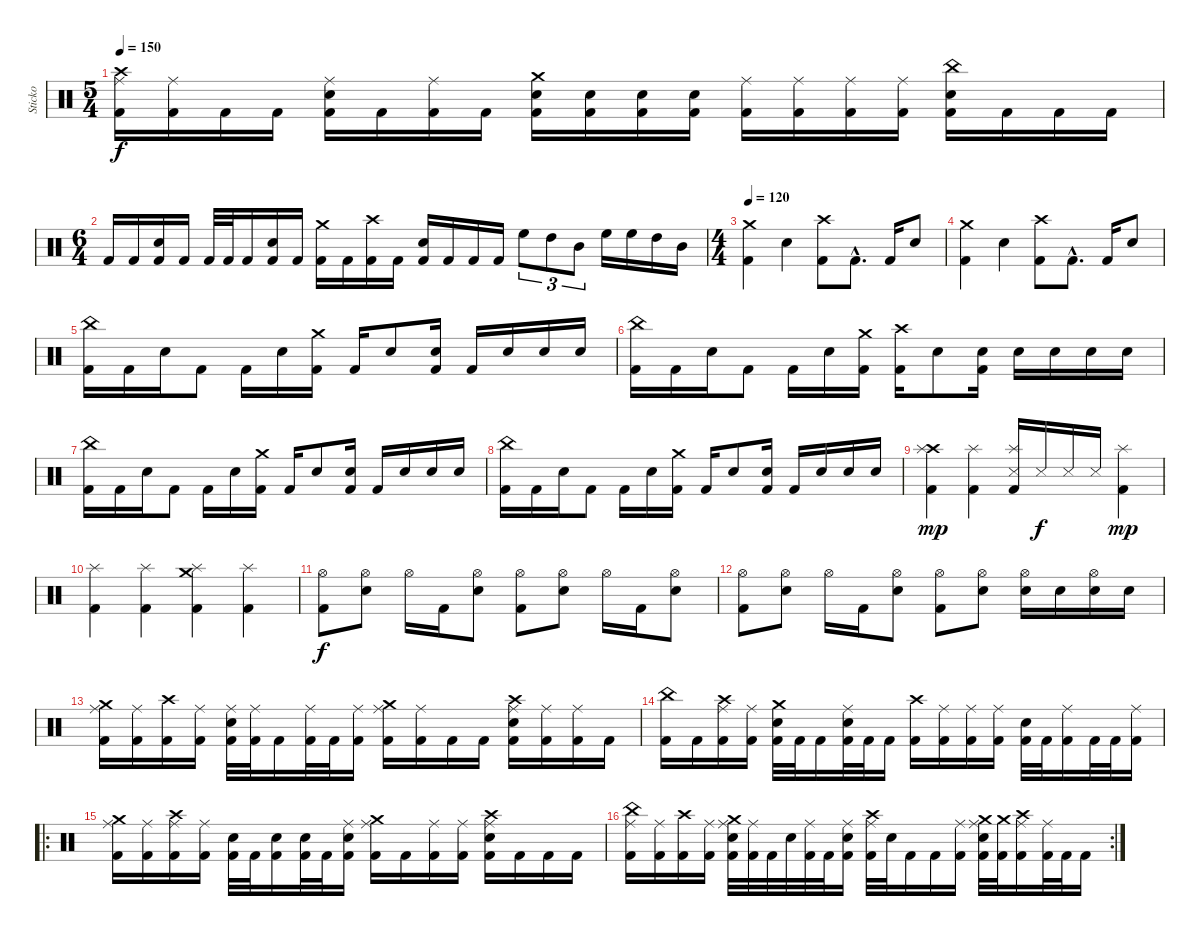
\track ("Sticko" "Sticko") {instrument percussion}
\staff {score}
\articulation defaults
\ts (5 4)
\tempo 150
\clef neutral
\ks c
("Crash high (hit)" "Ride (middle)" "Kick (hit) 2").16{dy f} ("Ride (middle)" "Kick (hit) 2").16 "Kick (hit) 2".16 "Kick (hit) 2".16 ("Ride (middle)" "Snare (hit) 2" "Kick (hit) 2").16 "Kick (hit) 2".16 ("Ride (middle)" "Kick (hit) 2").16 "Kick (hit) 2".16 ("Crash medium (hit)" "Snare (hit) 2" "Kick (hit) 2").16 ("Snare (hit) 2" "Kick (hit) 2").16 ("Snare (hit) 2" "Kick (hit) 2").16 ("Snare (hit) 2" "Kick (hit) 2").16 ("Ride (middle)" "Kick (hit) 2").16 ("Ride (middle)" "Kick (hit) 2").16 ("Ride (middle)" "Kick (hit) 2").16 ("Ride (middle)" "Kick (hit) 2").16 ("China (hit)" "Snare (hit) 2" "Kick (hit) 2").16 "Kick (hit) 2".16 "Kick (hit) 2".16 "Kick (hit) 2".16 |
\ts (6 4)
"Kick (hit) 2".16 "Kick (hit) 2".16 ("Snare (hit) 2" "Kick (hit) 2").16 "Kick (hit) 2".16 "Kick (hit) 2".32 "Kick (hit) 2".32 "Kick (hit) 2".16 ("Snare (hit) 2" "Kick (hit) 2").16 "Kick (hit) 2".16 ("Crash medium (hit)" "Kick (hit) 2").16 "Kick (hit) 2".16 ("Crash high (hit)" "Kick (hit) 2").16 "Kick (hit) 2".16 ("Snare (hit) 2" "Kick (hit) 2").16 "Kick (hit) 2".16 "Kick (hit) 2".16 "Kick (hit) 2".16 "High Floor Tom (hit)".8{tu (3 2)} "High Tom (hit)".8{tu (3 2)} "Mid Tom (hit)".8{tu (3 2)} "High Floor Tom (hit)".16 "High Floor Tom (hit)".16 "High Tom (hit)".16 "Mid Tom (hit)".16 |
\ts (4 4)
\tempo 120
("Crash medium (hit)" "Kick (hit) 2").4 "Snare (hit) 2".4 ("Crash high (hit)" "Kick (hit) 2").8 "Kick (hit) 2"{hac}.8{d} "Kick (hit) 2".16 "Snare (hit) 2".8 |
("Crash medium (hit)" "Kick (hit) 2").4 "Snare (hit) 2".4 ("Crash high (hit)" "Kick (hit) 2").8 "Kick (hit) 2"{hac}.8{d} "Kick (hit) 2".16 "Snare (hit) 2".8 |
("China (hit)" "Kick (hit) 2").16 "Kick (hit) 2".16 "Snare (hit) 2".16 "Kick (hit) 2".8 "Kick (hit) 2".16 "Snare (hit) 2".16 ("Crash medium (hit)" "Kick (hit) 2").16 "Kick (hit) 2".16 "Snare (hit) 2".8 ("Snare (hit) 2" "Kick (hit) 2").16 "Kick (hit) 2".16 "Snare (hit) 2".16 "Snare (hit) 2".16 "Snare (hit) 2".16 |
("China (hit)" "Kick (hit) 2").16 "Kick (hit) 2".16 "Snare (hit) 2".16 "Kick (hit) 2".8 "Kick (hit) 2".16 "Snare (hit) 2".16 ("Crash medium (hit)" "Kick (hit) 2").16 ("Crash high (hit)" "Kick (hit) 2").16 "Snare (hit) 2".8 ("Snare (hit) 2" "Kick (hit) 2").16 "Snare (hit) 2".16 "Snare (hit) 2".16 "Snare (hit) 2".16 "Snare (hit) 2".16 |
("China (hit)" "Kick (hit) 2").16 "Kick (hit) 2".16 "Snare (hit) 2".16 "Kick (hit) 2".8 "Kick (hit) 2".16 "Snare (hit) 2".16 ("Crash medium (hit)" "Kick (hit) 2").16 "Kick (hit) 2".16 "Snare (hit) 2".8 ("Snare (hit) 2" "Kick (hit) 2").16 "Kick (hit) 2".16 "Snare (hit) 2".16 "Snare (hit) 2".16 "Snare (hit) 2".16 |
("China (hit)" "Kick (hit) 2").16 "Kick (hit) 2".16 "Snare (hit) 2".16 "Kick (hit) 2".8 "Kick (hit) 2".16 "Snare (hit) 2".16 ("Crash medium (hit)" "Kick (hit) 2").16 "Kick (hit) 2".16 "Snare (hit) 2".8 ("Snare (hit) 2" "Kick (hit) 2").16 "Kick (hit) 2".16 "Snare (hit) 2".16 "Snare (hit) 2".16 "Snare (hit) 2".16 |
("Crash high (hit)" "Kick (hit) 2" "Splash (hit)").4{dy mp} ("Kick (hit) 2" "Splash (hit)").4 ("Metronome (hit)" "Kick (hit) 2" "Splash (hit)").16 "Metronome (hit)".16{dy f} "Metronome (hit)".16 "Metronome (hit)".16 ("Kick (hit) 2" "Splash (hit)").4{dy mp} |
("Kick (hit) 2" "Splash (hit)").4 ("Kick (hit) 2" "Splash (hit)").4 ("Crash medium (hit)" "Kick (hit) 2" "Splash (hit)").4 ("Kick (hit) 2" "Splash (hit)").4 |
("Hi-Hat (open)" "Kick (hit) 2").8{dy f} ("Hi-Hat (open)" "Snare (hit) 2").8 "Hi-Hat (open)".16 "Kick (hit) 2".16 ("Hi-Hat (open)" "Snare (hit) 2").8 ("Hi-Hat (open)" "Kick (hit) 2").8 ("Hi-Hat (open)" "Snare (hit) 2").8 "Hi-Hat (open)".16 "Kick (hit) 2".16 ("Hi-Hat (open)" "Snare (hit) 2").8 |
("Hi-Hat (open)" "Kick (hit) 2").8 ("Hi-Hat (open)" "Snare (hit) 2").8 "Hi-Hat (open)".16 "Kick (hit) 2".16 ("Hi-Hat (open)" "Snare (hit) 2").8 ("Hi-Hat (open)" "Kick (hit) 2").8 ("Hi-Hat (open)" "Snare (hit) 2").8 ("Hi-Hat (open)" "Snare (hit) 2").16 "Snare (hit) 2".16 ("Hi-Hat (open)" "Snare (hit) 2").16 "Snare (hit) 2".16 |
("Crash medium (hit)" "Ride (middle)" "Kick (hit) 2").16 ("Ride (middle)" "Kick (hit) 2").16 ("Crash high (hit)" "Kick (hit) 2").16 ("Ride (middle)" "Kick (hit) 2").16 ("Ride (middle)" "Snare (hit) 2" "Kick (hit) 2").32 ("Ride (middle)" "Kick (hit) 2").32 "Kick (hit) 2".16 ("Ride (middle)" "Kick (hit) 2").32 "Kick (hit) 2".32 ("Ride (middle)" "Kick (hit) 2").16 ("Crash medium (hit)" "Ride (middle)" "Kick (hit) 2").16 ("Ride (middle)" "Kick (hit) 2").16 "Kick (hit) 2".16 "Kick (hit) 2".16 ("Crash high (hit)" "Ride (middle)" "Snare (hit) 2" "Kick (hit) 2").16 ("Ride (middle)" "Kick (hit) 2").16 ("Ride (middle)" "Kick (hit) 2").16 "Kick (hit) 2".16 |
("China (hit)" "Kick (hit) 2").16 "Kick (hit) 2".16 ("Crash high (hit)" "Ride (middle)" "Kick (hit) 2").16 ("Ride (middle)" "Kick (hit) 2").16 ("Crash medium (hit)" "Snare (hit) 2" "Kick (hit) 2").32 "Kick (hit) 2".32 "Kick (hit) 2".16 ("Ride (middle)" "Snare (hit) 2" "Kick (hit) 2").32 "Kick (hit) 2".32 "Kick (hit) 2".16 ("Crash high (hit)" "Kick (hit) 2").16 ("Ride (middle)" "Kick (hit) 2").16 ("Ride (middle)" "Kick (hit) 2").16 ("Ride (middle)" "Kick (hit) 2").16 ("Snare (hit) 2" "Kick (hit) 2").32 "Kick (hit) 2".32 ("Ride (middle)" "Kick (hit) 2").16 "Kick (hit) 2".32 "Kick (hit) 2".32 ("Ride (middle)" "Kick (hit) 2").16 |
\ro
("Crash medium (hit)" "Ride (middle)" "Kick (hit) 2").16 ("Ride (middle)" "Kick (hit) 2").16 ("Crash high (hit)" "Ride (middle)" "Kick (hit) 2").16 ("Ride (middle)" "Kick (hit) 2").16 ("Snare (hit) 2" "Kick (hit) 2").32 "Kick (hit) 2".32 ("Snare (hit) 2" "Kick (hit) 2").16 ("Snare (hit) 2" "Kick (hit) 2").32 "Kick (hit) 2".32 ("Ride (middle)" "Snare (hit) 2" "Kick (hit) 2").16 ("Crash medium (hit)" "Ride (middle)" "Kick (hit) 2").16 "Kick (hit) 2".16 ("Ride (middle)" "Kick (hit) 2").16 ("Ride (middle)" "Kick (hit) 2").16 ("Crash high (hit)" "Ride (middle)" "Snare (hit) 2" "Kick (hit) 2").16 "Kick (hit) 2".16 "Kick (hit) 2".16 "Kick (hit) 2".16 |
\rc 2
("China (hit)" "Ride (middle)" "Kick (hit) 2").16 ("Ride (middle)" "Kick (hit) 2").16 ("Crash high (hit)" "Kick (hit) 2").16 ("Ride (middle)" "Kick (hit) 2").16 ("Crash medium (hit)" "Ride (middle)" "Snare (hit) 2" "Kick (hit) 2").32 ("Ride (middle)" "Kick (hit) 2").32 "Kick (hit) 2".32 "Snare (hit) 2".32 ("Ride (middle)" "Kick (hit) 2").32 "Kick (hit) 2".32 ("Ride (middle)" "Snare (hit) 2" "Kick (hit) 2").16 ("Crash high (hit)" "Ride (middle)" "Kick (hit) 2").32 "Snare (hit) 2".32 "Kick (hit) 2".16 "Kick (hit) 2".16 ("Ride (middle)" "Kick (hit) 2").16 ("Crash medium (hit)" "Ride (middle)" "Snare (hit) 2" "Kick (hit) 2").32 ("Crash medium (hit)" "Kick (hit) 2").32 ("Crash high (hit)" "Ride (middle)" "Kick (hit) 2").16 ("Ride (middle)" "Kick (hit) 2").32 "Kick (hit) 2".32 "Kick (hit) 2".16
